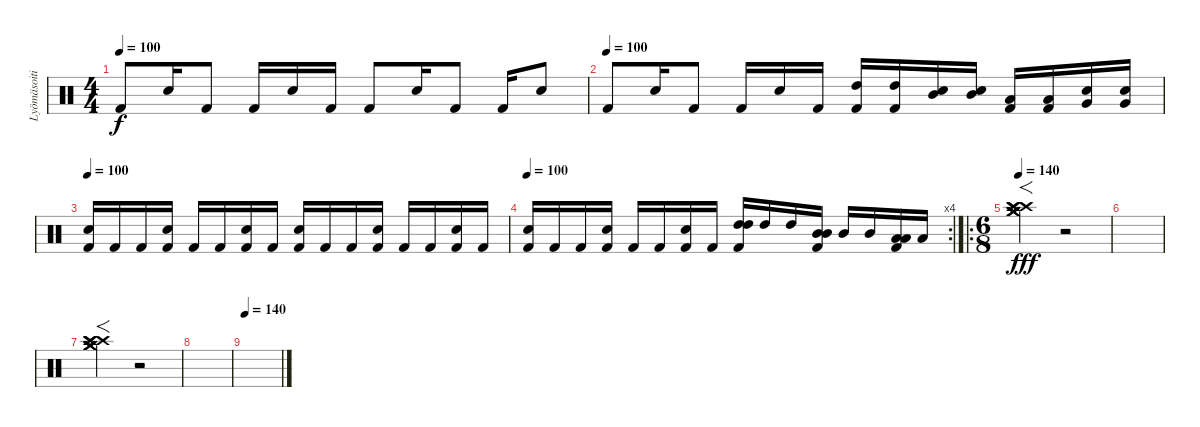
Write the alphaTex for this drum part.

\track ("Lyömäsoitin" "Lyömäsoiti") {instrument percussion}
\staff {score}
\articulation defaults
\ts (4 4)
\tempo 100
\clef neutral
\ks c "Kick (hit) 2".8{dy f} "Electric Snare (hit)".16 "Kick (hit) 2".8 "Kick (hit) 2".16 "Electric Snare (hit)".16 "Kick (hit) 2".16 "Kick (hit) 2".8 "Electric Snare (hit)".16 "Kick (hit) 2".8 "Kick (hit) 2".16 "Electric Snare (hit)".8
|
\tempo (100)
"Kick (hit) 2".8 "Electric Snare (hit)".16 "Kick (hit) 2".8 "Kick (hit) 2".16 "Electric Snare (hit)".16 "Kick (hit) 2".16 ("Kick (hit) 2" "High Tom (hit)").16 ("Kick (hit) 2" "High Tom (hit)").16 ("Electric Snare (hit)" "Mid Tom (hit)").16 ("Electric Snare (hit)" "Mid Tom (hit)").16 ("Kick (hit) 2" "Low Tom (hit)").16 ("Kick (hit) 2" "Low Tom (hit)").16 ("Electric Snare (hit)" "Very Low Tom (hit)").16 ("Electric Snare (hit)" "Very Low Tom (hit)").16 |
\tempo 100
("Kick (hit) 2" "Electric Snare (hit)").16 "Kick (hit) 2".16 "Kick (hit) 2".16 ("Kick (hit) 2" "Electric Snare (hit)").16 "Kick (hit) 2".16 "Kick (hit) 2".16 ("Kick (hit) 2" "Electric Snare (hit)").16 "Kick (hit) 2".16 ("Kick (hit) 2" "Electric Snare (hit)").16 "Kick (hit) 2".16 "Kick (hit) 2".16 ("Kick (hit) 2" "Electric Snare (hit)").16 "Kick (hit) 2".16 "Kick (hit) 2".16 ("Kick (hit) 2" "Electric Snare (hit)").16 "Kick (hit) 2".16 |
\rc 4
\tempo 100
("Kick (hit) 2" "Electric Snare (hit)").16 "Kick (hit) 2".16 "Kick (hit) 2".16 ("Kick (hit) 2" "Electric Snare (hit)").16 "Kick (hit) 2".16 "Kick (hit) 2".16 ("Kick (hit) 2" "Electric Snare (hit)").16 "Kick (hit) 2".16 ("High Tom (hit)" "High Tom (hit)" "Kick (hit) 2").16 "High Tom (hit)".16 "High Tom (hit)".16 ("Mid Tom (hit)" "Mid Tom (hit)" "Kick (hit) 2").16 "Mid Tom (hit)".16 "Mid Tom (hit)".16 ("Low Tom (hit)" "Low Tom (hit)" "Kick (hit) 2").16 "Low Tom (hit)".16 |
\ro
\ts (6 8)
\tempo 140
("Crash medium (hit)" "Crash medium (hit)" "Crash medium (hit)" "Crash high (hit)" "Crash high (hit)" "Crash high (hit)").4{f dy fff} r.2 |
|
("Crash medium (hit)" "Crash medium (hit)" "Crash medium (hit)" "Crash high (hit)" "Crash high (hit)" "Crash high (hit)").4{f} r.2 |
|
\tempo 140
